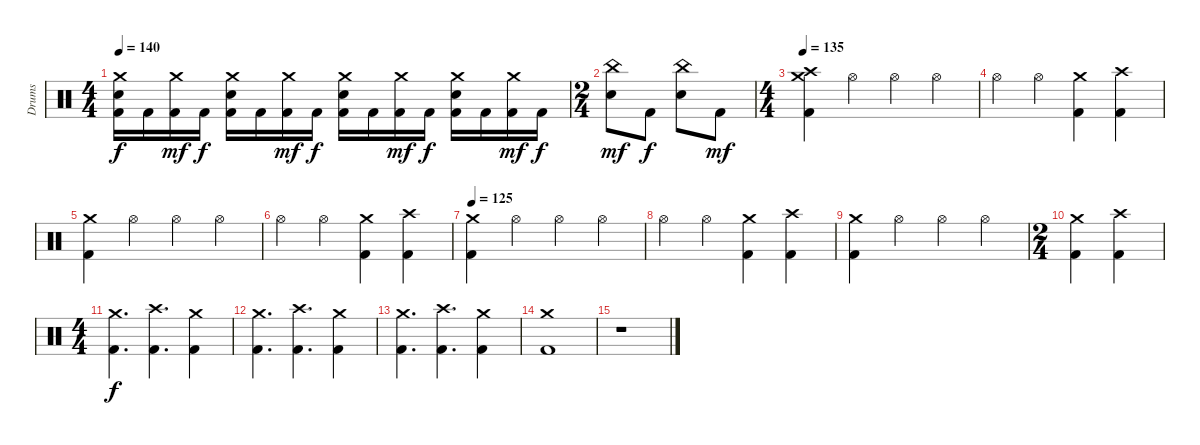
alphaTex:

\track ("Drums" "Drums") {instrument percussion}
\staff {score}
\articulation defaults
\ts (4 4)
\tempo 140
\clef neutral
\ks c
("Crash medium (hit)" "Electric Snare (hit)" "Kick (hit) 2").16{dy f} "Kick (hit) 2".16 ("Crash medium (hit)" "Kick (hit) 2").16{dy mf} "Kick (hit) 2".16{dy f} ("Crash medium (hit)" "Electric Snare (hit)" "Kick (hit) 2").16 "Kick (hit) 2".16 ("Crash medium (hit)" "Kick (hit) 2").16{dy mf} "Kick (hit) 2".16{dy f} ("Crash medium (hit)" "Electric Snare (hit)" "Kick (hit) 2").16 "Kick (hit) 2".16 ("Crash medium (hit)" "Kick (hit) 2").16{dy mf} "Kick (hit) 2".16{dy f} ("Crash medium (hit)" "Electric Snare (hit)" "Kick (hit) 2").16 "Kick (hit) 2".16 ("Crash medium (hit)" "Kick (hit) 2").16{dy mf} "Kick (hit) 2".16{dy f} |
\ts (2 4)
("China (hit)" "Electric Snare (hit)").8{dy mf} "Kick (hit) 2".8{dy f} ("China (hit)" "Electric Snare (hit)").8 "Kick (hit) 2".8{dy mf} |
\ts (4 4)
\tempo 135
("Crash medium (hit)" "Crash high (hit)" "Kick (hit) 2").4 "Hi-Hat (open)".4 "Hi-Hat (open)".4 "Hi-Hat (open)".4 |
"Hi-Hat (open)".4 "Hi-Hat (open)".4 ("Crash medium (hit)" "Kick (hit) 2").4 ("Crash high (hit)" "Kick (hit) 2").4 |
("Crash medium (hit)" "Kick (hit) 2").4 "Hi-Hat (open)".4 "Hi-Hat (open)".4 "Hi-Hat (open)".4 |
"Hi-Hat (open)".4 "Hi-Hat (open)".4 ("Crash medium (hit)" "Kick (hit) 2").4 ("Crash high (hit)" "Kick (hit) 2").4 |
\tempo 125
("Crash medium (hit)" "Kick (hit) 2").4 "Hi-Hat (open)".4 "Hi-Hat (open)".4 "Hi-Hat (open)".4 |
"Hi-Hat (open)".4 "Hi-Hat (open)".4 ("Crash medium (hit)" "Kick (hit) 2").4 ("Crash high (hit)" "Kick (hit) 2").4 |
("Crash medium (hit)" "Kick (hit) 2").4 "Hi-Hat (open)".4 "Hi-Hat (open)".4 "Hi-Hat (open)".4 |
\ts (2 4)
("Crash medium (hit)" "Kick (hit) 2").4 ("Crash high (hit)" "Kick (hit) 2").4 |
\ts (4 4)
("Crash medium (hit)" "Kick (hit) 2").4{d dy f} ("Crash high (hit)" "Kick (hit) 2").4{d} ("Crash medium (hit)" "Kick (hit) 2").4 |
("Crash medium (hit)" "Kick (hit) 2").4{d} ("Crash high (hit)" "Kick (hit) 2").4{d} ("Crash medium (hit)" "Kick (hit) 2").4 |
("Crash medium (hit)" "Kick (hit) 2").4{d} ("Crash high (hit)" "Kick (hit) 2").4{d} ("Crash medium (hit)" "Kick (hit) 2").4 |
("Crash medium (hit)" "Kick (hit) 2").1 |
r.1
